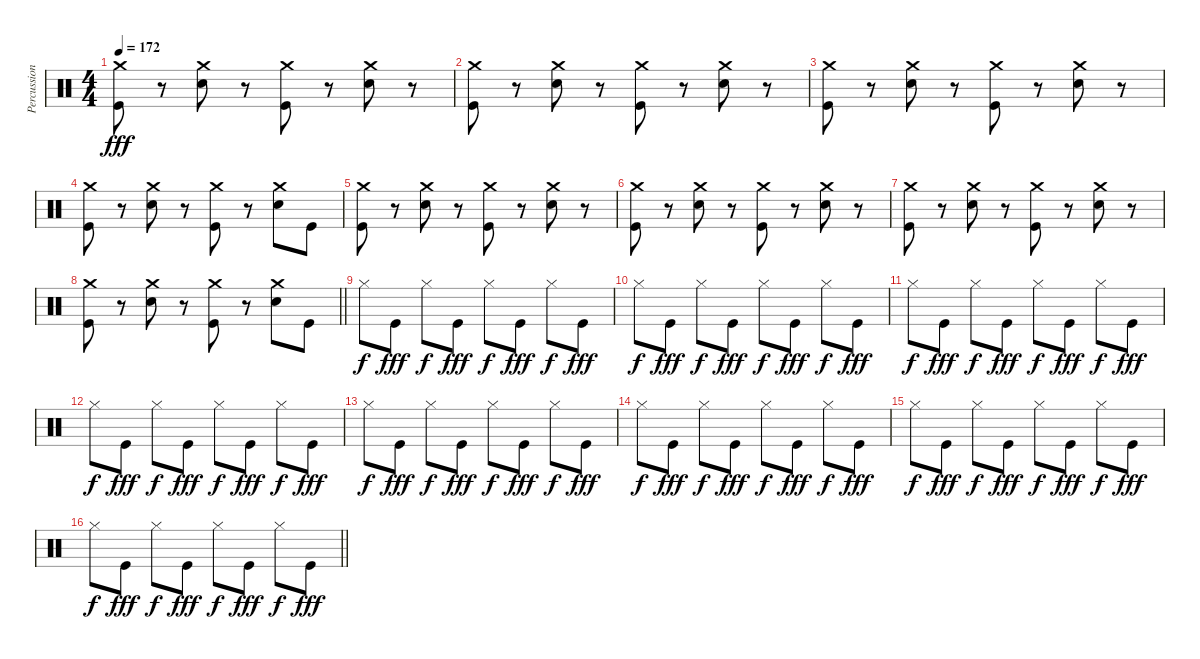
\track ("Percussions" "Percussion") {instrument percussion}
\staff {score}
\articulation defaults
\ts (4 4)
\tempo 172
\clef neutral
\ks c
("Crash medium (hit)" "Kick (hit)").8{dy fff} r.8 ("Crash medium (hit)" "Snare (hit) 2").8 r.8 ("Crash medium (hit)" "Kick (hit)").8 r.8 ("Crash medium (hit)" "Snare (hit) 2").8 r.8 |
("Crash medium (hit)" "Kick (hit)").8 r.8 ("Crash medium (hit)" "Snare (hit) 2").8 r.8 ("Crash medium (hit)" "Kick (hit)").8 r.8 ("Crash medium (hit)" "Snare (hit) 2").8 r.8 |
("Crash medium (hit)" "Kick (hit)").8 r.8 ("Crash medium (hit)" "Snare (hit) 2").8 r.8 ("Crash medium (hit)" "Kick (hit)").8 r.8 ("Crash medium (hit)" "Snare (hit) 2").8 r.8 |
("Crash medium (hit)" "Kick (hit)").8 r.8 ("Crash medium (hit)" "Snare (hit) 2").8 r.8 ("Crash medium (hit)" "Kick (hit)").8 r.8 ("Crash medium (hit)" "Snare (hit) 2").8 "Kick (hit)".8 |
("Crash medium (hit)" "Kick (hit)").8 r.8 ("Crash medium (hit)" "Snare (hit) 2").8 r.8 ("Crash medium (hit)" "Kick (hit)").8 r.8 ("Crash medium (hit)" "Snare (hit) 2").8 r.8 |
("Crash medium (hit)" "Kick (hit)").8 r.8 ("Crash medium (hit)" "Snare (hit) 2").8 r.8 ("Crash medium (hit)" "Kick (hit)").8 r.8 ("Crash medium (hit)" "Snare (hit) 2").8 r.8 |
("Crash medium (hit)" "Kick (hit)").8 r.8 ("Crash medium (hit)" "Snare (hit) 2").8 r.8 ("Crash medium (hit)" "Kick (hit)").8 r.8 ("Crash medium (hit)" "Snare (hit) 2").8 r.8 |
\barLineRight lightlight
("Crash medium (hit)" "Kick (hit)").8 r.8 ("Crash medium (hit)" "Snare (hit) 2").8 r.8 ("Crash medium (hit)" "Kick (hit)").8 r.8 ("Crash medium (hit)" "Snare (hit) 2").8 "Kick (hit)".8 |
"Hi-Hat (closed)".8{dy f} "Kick (hit)".8{dy fff} "Hi-Hat (closed)".8{dy f} "Kick (hit)".8{dy fff} "Hi-Hat (closed)".8{dy f} "Kick (hit)".8{dy fff} "Hi-Hat (closed)".8{dy f} "Kick (hit)".8{dy fff} |
"Hi-Hat (closed)".8{dy f} "Kick (hit)".8{dy fff} "Hi-Hat (closed)".8{dy f} "Kick (hit)".8{dy fff} "Hi-Hat (closed)".8{dy f} "Kick (hit)".8{dy fff} "Hi-Hat (closed)".8{dy f} "Kick (hit)".8{dy fff} |
"Hi-Hat (closed)".8{dy f} "Kick (hit)".8{dy fff} "Hi-Hat (closed)".8{dy f} "Kick (hit)".8{dy fff} "Hi-Hat (closed)".8{dy f} "Kick (hit)".8{dy fff} "Hi-Hat (closed)".8{dy f} "Kick (hit)".8{dy fff} |
"Hi-Hat (closed)".8{dy f} "Kick (hit)".8{dy fff} "Hi-Hat (closed)".8{dy f} "Kick (hit)".8{dy fff} "Hi-Hat (closed)".8{dy f} "Kick (hit)".8{dy fff} "Hi-Hat (closed)".8{dy f} "Kick (hit)".8{dy fff} |
"Hi-Hat (closed)".8{dy f} "Kick (hit)".8{dy fff} "Hi-Hat (closed)".8{dy f} "Kick (hit)".8{dy fff} "Hi-Hat (closed)".8{dy f} "Kick (hit)".8{dy fff} "Hi-Hat (closed)".8{dy f} "Kick (hit)".8{dy fff} |
"Hi-Hat (closed)".8{dy f} "Kick (hit)".8{dy fff} "Hi-Hat (closed)".8{dy f} "Kick (hit)".8{dy fff} "Hi-Hat (closed)".8{dy f} "Kick (hit)".8{dy fff} "Hi-Hat (closed)".8{dy f} "Kick (hit)".8{dy fff} |
"Hi-Hat (closed)".8{dy f} "Kick (hit)".8{dy fff} "Hi-Hat (closed)".8{dy f} "Kick (hit)".8{dy fff} "Hi-Hat (closed)".8{dy f} "Kick (hit)".8{dy fff} "Hi-Hat (closed)".8{dy f} "Kick (hit)".8{dy fff} |
\barLineRight lightlight "Hi-Hat (closed)".8{dy f} "Kick (hit)".8{dy fff} "Hi-Hat (closed)".8{dy f} "Kick (hit)".8{dy fff} "Hi-Hat (closed)".8{dy f} "Kick (hit)".8{dy fff} "Hi-Hat (closed)".8{dy f} "Kick (hit)".8{dy fff}
